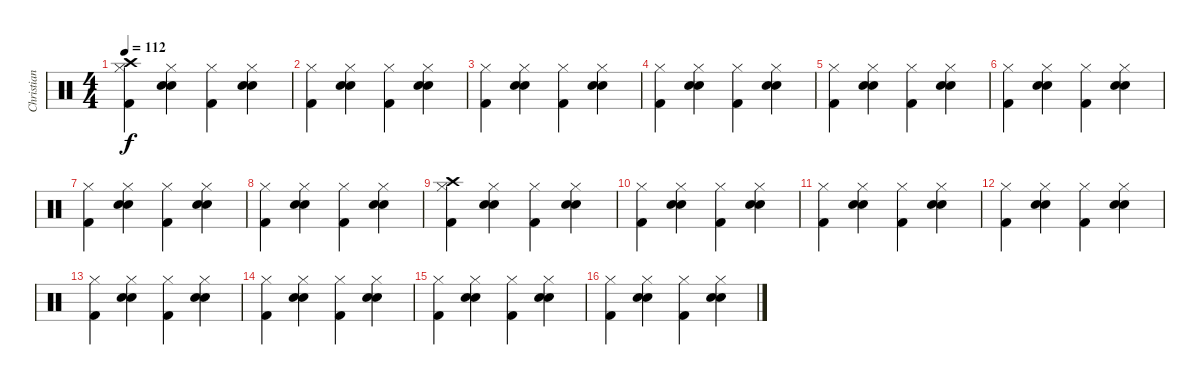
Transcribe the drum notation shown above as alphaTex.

\track ("Christian Paredes" "Christian ") {instrument percussion}
\staff {score}
\articulation defaults
\ts (4 4)
\tempo 112
\clef neutral
\ks c
("Hi-Hat (closed)" "Crash high (hit)" "Kick (hit) 2").4{dy f} ("Hi-Hat (closed)" "Electric Snare (hit)" "Hand Clap (hit)").4 ("Hi-Hat (closed)" "Kick (hit) 2").4 ("Hi-Hat (closed)" "Electric Snare (hit)" "Hand Clap (hit)").4 |
("Hi-Hat (closed)" "Kick (hit) 2").4 ("Hi-Hat (closed)" "Electric Snare (hit)" "Hand Clap (hit)").4 ("Hi-Hat (closed)" "Kick (hit) 2").4 ("Hi-Hat (closed)" "Electric Snare (hit)" "Hand Clap (hit)").4 |
("Hi-Hat (closed)" "Kick (hit) 2").4 ("Hi-Hat (closed)" "Electric Snare (hit)" "Hand Clap (hit)").4 ("Hi-Hat (closed)" "Kick (hit) 2").4 ("Hi-Hat (closed)" "Electric Snare (hit)" "Hand Clap (hit)").4 |
("Hi-Hat (closed)" "Kick (hit) 2").4 ("Hi-Hat (closed)" "Electric Snare (hit)" "Hand Clap (hit)").4 ("Hi-Hat (closed)" "Kick (hit) 2").4 ("Hi-Hat (closed)" "Electric Snare (hit)" "Hand Clap (hit)").4 |
("Hi-Hat (closed)" "Kick (hit) 2").4 ("Hi-Hat (closed)" "Electric Snare (hit)" "Hand Clap (hit)").4 ("Hi-Hat (closed)" "Kick (hit) 2").4 ("Hi-Hat (closed)" "Electric Snare (hit)" "Hand Clap (hit)").4 |
("Hi-Hat (closed)" "Kick (hit) 2").4 ("Hi-Hat (closed)" "Electric Snare (hit)" "Hand Clap (hit)").4 ("Hi-Hat (closed)" "Kick (hit) 2").4 ("Hi-Hat (closed)" "Electric Snare (hit)" "Hand Clap (hit)").4 |
("Hi-Hat (closed)" "Kick (hit) 2").4 ("Hi-Hat (closed)" "Electric Snare (hit)" "Hand Clap (hit)").4 ("Hi-Hat (closed)" "Kick (hit) 2").4 ("Hi-Hat (closed)" "Electric Snare (hit)" "Hand Clap (hit)").4 |
("Hi-Hat (closed)" "Kick (hit) 2").4 ("Hi-Hat (closed)" "Electric Snare (hit)" "Hand Clap (hit)").4 ("Hi-Hat (closed)" "Kick (hit) 2").4 ("Hi-Hat (closed)" "Electric Snare (hit)" "Hand Clap (hit)").4 |
("Hi-Hat (closed)" "Crash high (hit)" "Kick (hit) 2").4 ("Hi-Hat (closed)" "Electric Snare (hit)" "Hand Clap (hit)").4 ("Hi-Hat (closed)" "Kick (hit) 2").4 ("Hi-Hat (closed)" "Electric Snare (hit)" "Hand Clap (hit)").4 |
("Hi-Hat (closed)" "Kick (hit) 2").4 ("Hi-Hat (closed)" "Electric Snare (hit)" "Hand Clap (hit)").4 ("Hi-Hat (closed)" "Kick (hit) 2").4 ("Hi-Hat (closed)" "Electric Snare (hit)" "Hand Clap (hit)").4 |
("Hi-Hat (closed)" "Kick (hit) 2").4 ("Hi-Hat (closed)" "Electric Snare (hit)" "Hand Clap (hit)").4 ("Hi-Hat (closed)" "Kick (hit) 2").4 ("Hi-Hat (closed)" "Electric Snare (hit)" "Hand Clap (hit)").4 |
("Hi-Hat (closed)" "Kick (hit) 2").4 ("Hi-Hat (closed)" "Electric Snare (hit)" "Hand Clap (hit)").4 ("Hi-Hat (closed)" "Kick (hit) 2").4 ("Hi-Hat (closed)" "Electric Snare (hit)" "Hand Clap (hit)").4 |
("Hi-Hat (closed)" "Kick (hit) 2").4 ("Hi-Hat (closed)" "Electric Snare (hit)" "Hand Clap (hit)").4 ("Hi-Hat (closed)" "Kick (hit) 2").4 ("Hi-Hat (closed)" "Electric Snare (hit)" "Hand Clap (hit)").4 |
("Hi-Hat (closed)" "Kick (hit) 2").4 ("Hi-Hat (closed)" "Electric Snare (hit)" "Hand Clap (hit)").4 ("Hi-Hat (closed)" "Kick (hit) 2").4 ("Hi-Hat (closed)" "Electric Snare (hit)" "Hand Clap (hit)").4 |
("Hi-Hat (closed)" "Kick (hit) 2").4 ("Hi-Hat (closed)" "Electric Snare (hit)" "Hand Clap (hit)").4 ("Hi-Hat (closed)" "Kick (hit) 2").4 ("Hi-Hat (closed)" "Electric Snare (hit)" "Hand Clap (hit)").4 |
("Hi-Hat (closed)" "Kick (hit) 2").4 ("Hi-Hat (closed)" "Electric Snare (hit)" "Hand Clap (hit)").4 ("Hi-Hat (closed)" "Kick (hit) 2").4 ("Hi-Hat (closed)" "Electric Snare (hit)" "Hand Clap (hit)").4
